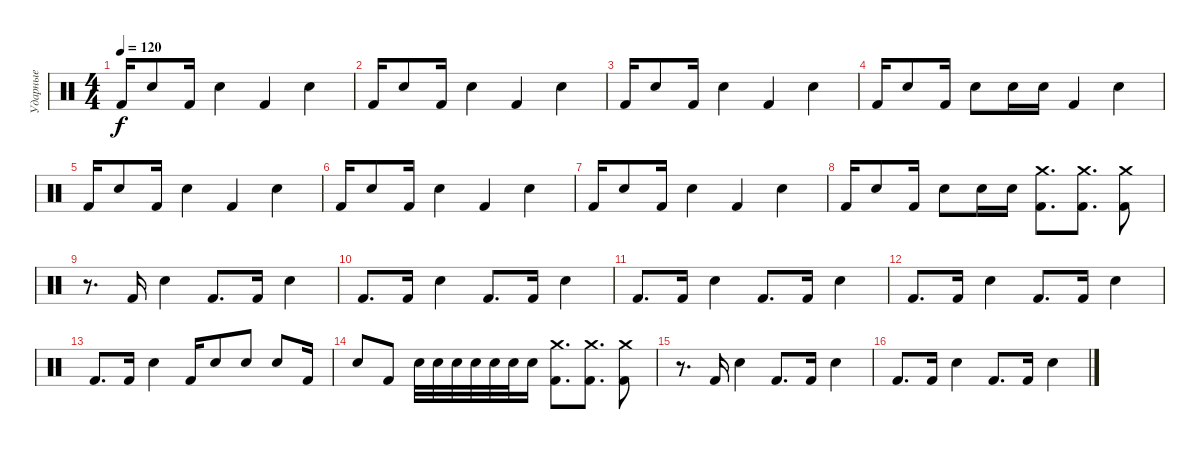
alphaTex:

\track ("Ударные" "Ударные") {instrument percussion}
\staff {score}
\articulation defaults
\ts (4 4)
\tempo 120
\clef neutral
\ks c "Kick (hit) 2".16{dy f} "Snare (hit) 2".8 "Kick (hit) 2".16 "Snare (hit) 2".4 "Kick (hit) 2".4 "Snare (hit) 2".4
|
"Kick (hit) 2".16 "Snare (hit) 2".8 "Kick (hit) 2".16 "Snare (hit) 2".4 "Kick (hit) 2".4 "Snare (hit) 2".4 |
"Kick (hit) 2".16 "Snare (hit) 2".8 "Kick (hit) 2".16 "Snare (hit) 2".4 "Kick (hit) 2".4 "Snare (hit) 2".4 |
"Kick (hit) 2".16 "Snare (hit) 2".8 "Kick (hit) 2".16 "Snare (hit) 2".8 "Snare (hit) 2".16 "Snare (hit) 2".16 "Kick (hit) 2".4 "Snare (hit) 2".4 |
"Kick (hit) 2".16 "Snare (hit) 2".8 "Kick (hit) 2".16 "Snare (hit) 2".4 "Kick (hit) 2".4 "Snare (hit) 2".4 |
"Kick (hit) 2".16 "Snare (hit) 2".8 "Kick (hit) 2".16 "Snare (hit) 2".4 "Kick (hit) 2".4 "Snare (hit) 2".4 |
"Kick (hit) 2".16 "Snare (hit) 2".8 "Kick (hit) 2".16 "Snare (hit) 2".4 "Kick (hit) 2".4 "Snare (hit) 2".4 |
"Kick (hit) 2".16 "Snare (hit) 2".8 "Kick (hit) 2".16 "Snare (hit) 2".8 "Snare (hit) 2".16 "Snare (hit) 2".16 ("Crash medium (hit)" "Kick (hit) 2").8{d} ("Crash medium (hit)" "Kick (hit) 2").8{d} ("Crash medium (hit)" "Kick (hit) 2").8 |
r.8{d} "Kick (hit) 2".16 "Snare (hit) 2".4 "Kick (hit) 2".8{d} "Kick (hit) 2".16 "Snare (hit) 2".4 |
"Kick (hit) 2".8{d} "Kick (hit) 2".16 "Snare (hit) 2".4 "Kick (hit) 2".8{d} "Kick (hit) 2".16 "Snare (hit) 2".4 |
"Kick (hit) 2".8{d} "Kick (hit) 2".16 "Snare (hit) 2".4 "Kick (hit) 2".8{d} "Kick (hit) 2".16 "Snare (hit) 2".4 |
"Kick (hit) 2".8{d} "Kick (hit) 2".16 "Snare (hit) 2".4 "Kick (hit) 2".8{d} "Kick (hit) 2".16 "Snare (hit) 2".4 |
"Kick (hit) 2".8{d} "Kick (hit) 2".16 "Snare (hit) 2".4 "Kick (hit) 2".16 "Snare (hit) 2".8 "Snare (hit) 2".8 "Snare (hit) 2".8 "Kick (hit) 2".16 |
"Snare (hit) 2".8 "Kick (hit) 2".8 "Snare (hit) 2".32 "Snare (hit) 2".32 "Snare (hit) 2".32 "Snare (hit) 2".32 "Snare (hit) 2".32 "Snare (hit) 2".32 "Snare (hit) 2".16 ("Crash medium (hit)" "Kick (hit) 2").8{d} ("Crash medium (hit)" "Kick (hit) 2").8{d} ("Crash medium (hit)" "Kick (hit) 2").8 |
r.8{d} "Kick (hit) 2".16 "Snare (hit) 2".4 "Kick (hit) 2".8{d} "Kick (hit) 2".16 "Snare (hit) 2".4 |
"Kick (hit) 2".8{d} "Kick (hit) 2".16 "Snare (hit) 2".4 "Kick (hit) 2".8{d} "Kick (hit) 2".16 "Snare (hit) 2".4
